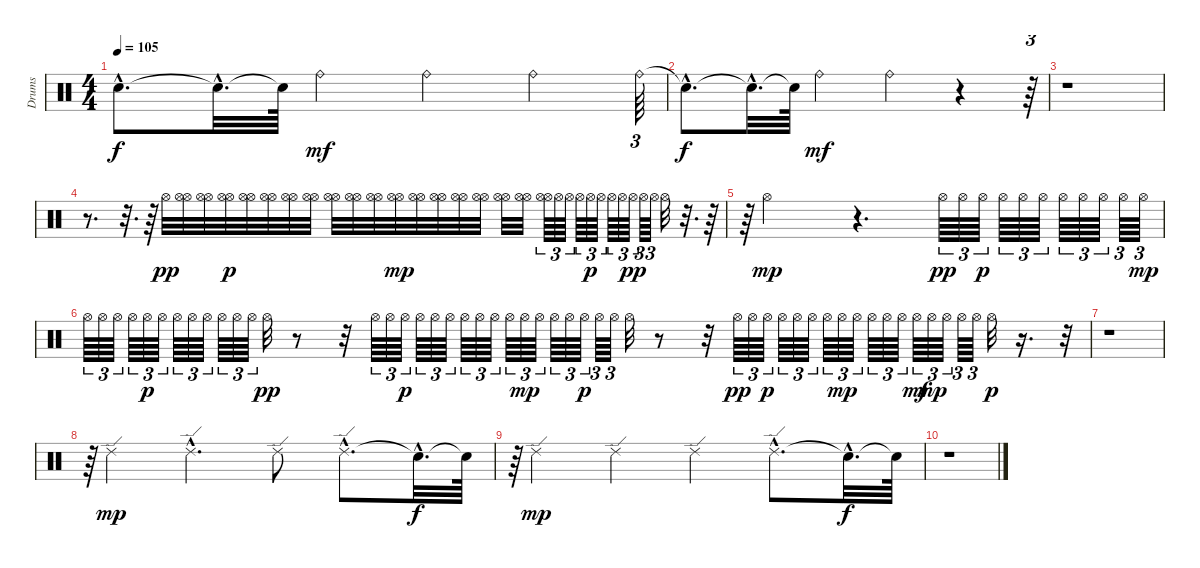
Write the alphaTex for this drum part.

\track ("Drums" "Drums") {instrument percussion}
\staff {score}
\articulation defaults
\ts (4 4)
\tempo 105
\clef neutral
\ks c "Snare (hit)"{hac t}.8{d dy f} "Snare (hit)"{hac t}.32{d} "Snare (hit)"{t}.64 "Ride (bell)".4{dy mf} "Ride (bell)".4 "Ride (bell)".4 "Ride (bell)".64{tu (3 2)}
|
"Snare (hit)"{hac t}.8{d dy f} "Snare (hit)"{hac t}.32{d} "Snare (hit)"{t}.64 "Ride (bell)".4{dy mf} "Ride (bell)".4 r.4 r.64{tu (3 2)} |
r.1 |
r.8{d} r.32{d} r.64 "Hi-Hat (open)".32{dy pp} ("Hi-Hat (open)" "Hi-Hat (open)").32 ("Hi-Hat (open)" "Hi-Hat (open)").32 ("Hi-Hat (open)" "Hi-Hat (open)").32{dy p} ("Hi-Hat (open)" "Hi-Hat (open)").32 ("Hi-Hat (open)" "Hi-Hat (open)").32 ("Hi-Hat (open)" "Hi-Hat (open)").32 ("Hi-Hat (open)" "Hi-Hat (open)").32 ("Hi-Hat (open)" "Hi-Hat (open)").32 ("Hi-Hat (open)" "Hi-Hat (open)").32 ("Hi-Hat (open)" "Hi-Hat (open)").32 ("Hi-Hat (open)" "Hi-Hat (open)").32{dy mp} ("Hi-Hat (open)" "Hi-Hat (open)").32 ("Hi-Hat (open)" "Hi-Hat (open)").32 ("Hi-Hat (open)" "Hi-Hat (open)").32 ("Hi-Hat (open)" "Hi-Hat (open)").32 ("Hi-Hat (open)" "Hi-Hat (open)").32 ("Hi-Hat (open)" "Hi-Hat (open)").32 ("Hi-Hat (open)" "Hi-Hat (open)").64{tu (3 2)} "Hi-Hat (open)".64{tu (3 2)} "Hi-Hat (open)".64{tu (3 2)} "Hi-Hat (open)".64{tu (3 2)} "Hi-Hat (open)".64{tu (3 2) dy p} "Hi-Hat (open)".64{tu (3 2)} "Hi-Hat (open)".64{tu (3 2)} "Hi-Hat (open)".64{tu (3 2)} "Hi-Hat (open)".64{tu (3 2) dy pp} "Hi-Hat (open)".64{tu (3 2)} "Hi-Hat (open)".64{tu (3 2)} "Hi-Hat (open)".32 r.32{d} r.64 |
r.64{tu (3 2)} "Hi-Hat (open)".2{dy mp} r.4{d} "Hi-Hat (open)".64{tu (3 2) dy pp} "Hi-Hat (open)".64{tu (3 2)} "Hi-Hat (open)".64{tu (3 2) dy p} "Hi-Hat (open)".64{tu (3 2)} "Hi-Hat (open)".64{tu (3 2)} "Hi-Hat (open)".64{tu (3 2)} "Hi-Hat (open)".64{tu (3 2)} "Hi-Hat (open)".64{tu (3 2)} "Hi-Hat (open)".64{tu (3 2)} "Hi-Hat (open)".64{tu (3 2)} "Hi-Hat (open)".64{tu (3 2) dy mp} |
"Hi-Hat (open)".64{tu (3 2)} "Hi-Hat (open)".64{tu (3 2)} "Hi-Hat (open)".64{tu (3 2)} "Hi-Hat (open)".64{tu (3 2)} "Hi-Hat (open)".64{tu (3 2) dy p} "Hi-Hat (open)".64{tu (3 2)} "Hi-Hat (open)".64{tu (3 2)} "Hi-Hat (open)".64{tu (3 2)} "Hi-Hat (open)".64{tu (3 2)} "Hi-Hat (open)".64{tu (3 2)} "Hi-Hat (open)".64{tu (3 2)} "Hi-Hat (open)".64{tu (3 2)} "Hi-Hat (open)".32{dy pp} r.8 r.32 "Hi-Hat (open)".64{tu (3 2)} "Hi-Hat (open)".64{tu (3 2)} "Hi-Hat (open)".64{tu (3 2) dy p} "Hi-Hat (open)".64{tu (3 2)} "Hi-Hat (open)".64{tu (3 2)} "Hi-Hat (open)".64{tu (3 2)} "Hi-Hat (open)".64{tu (3 2)} "Hi-Hat (open)".64{tu (3 2)} "Hi-Hat (open)".64{tu (3 2)} "Hi-Hat (open)".64{tu (3 2)} "Hi-Hat (open)".64{tu (3 2) dy mp} "Hi-Hat (open)".64{tu (3 2)} "Hi-Hat (open)".64{tu (3 2)} "Hi-Hat (open)".64{tu (3 2)} "Hi-Hat (open)".64{tu (3 2) dy p} "Hi-Hat (open)".64{tu (3 2)} "Hi-Hat (open)".64{tu (3 2)} "Hi-Hat (open)".32 r.8 r.32 "Hi-Hat (open)".64{tu (3 2) dy pp} "Hi-Hat (open)".64{tu (3 2)} "Hi-Hat (open)".64{tu (3 2) dy p} "Hi-Hat (open)".64{tu (3 2)} "Hi-Hat (open)".64{tu (3 2)} "Hi-Hat (open)".64{tu (3 2)} "Hi-Hat (open)".64{tu (3 2)} "Hi-Hat (open)".64{tu (3 2) dy mp} "Hi-Hat (open)".64{tu (3 2)} "Hi-Hat (open)".64{tu (3 2)} "Hi-Hat (open)".64{tu (3 2)} "Hi-Hat (open)".64{tu (3 2)} "Hi-Hat (open)".64{tu (3 2) dy mf} "Hi-Hat (open)".64{tu (3 2) dy mp} "Hi-Hat (open)".64{tu (3 2)} "Hi-Hat (open)".64{tu (3 2)} "Hi-Hat (open)".64{tu (3 2)} "Hi-Hat (open)".32{dy p} r.16{d} r.32{tu (3 2)} |
r.1 |
r.64{tu (3 2)} "Ride (edge) 2".4{dy mp} "Ride (edge) 2"{hac}.4{d} "Ride (edge) 2".8 "Ride (edge) 2"{hac}.8{d} "Snare (hit)"{hac t}.32{d dy f} "Snare (hit)"{t}.64 |
r.64{tu (3 2)} "Ride (edge) 2".4{dy mp} "Ride (edge) 2".4 "Ride (edge) 2".4 "Ride (edge) 2"{hac}.8{d} "Snare (hit)"{hac t}.32{d dy f} "Snare (hit)"{t}.64 |
r.1
